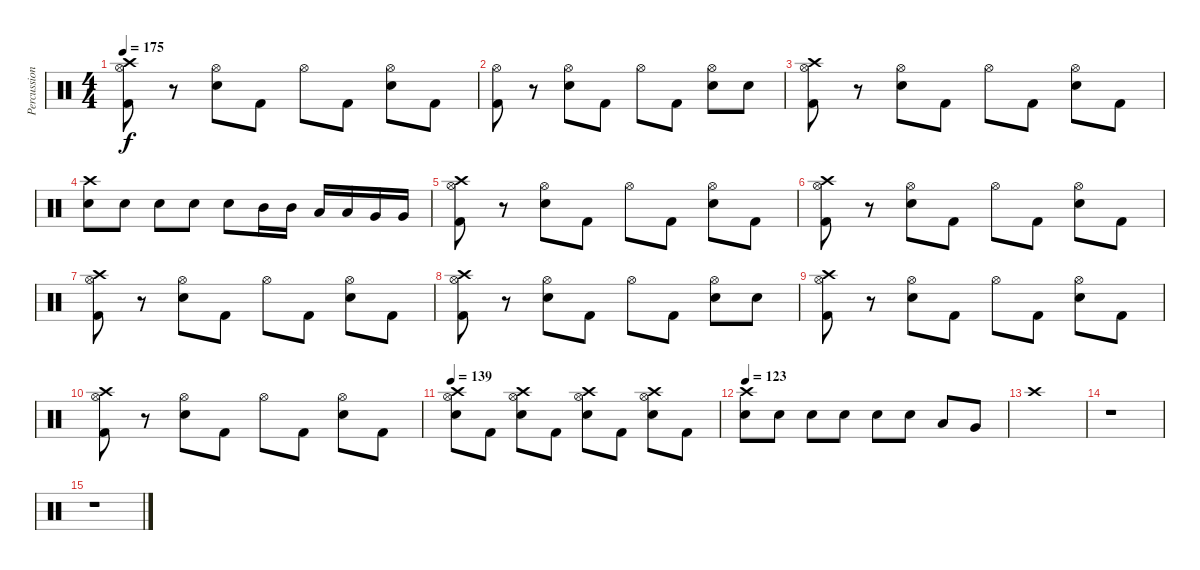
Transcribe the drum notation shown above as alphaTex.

\track ("Percussion" "Percussion") {instrument percussion}
\staff {score}
\articulation defaults
\ts (4 4)
\tempo 175
\clef neutral
\ks c
("Crash high (hit)" "Hi-Hat (open)" "Kick (hit) 2").8{dy f} r.8 ("Hi-Hat (open)" "Electric Snare (hit)").8 "Kick (hit) 2".8 "Hi-Hat (open)".8 "Kick (hit) 2".8 ("Hi-Hat (open)" "Electric Snare (hit)").8 "Kick (hit) 2".8 |
("Hi-Hat (open)" "Kick (hit) 2").8 r.8 ("Hi-Hat (open)" "Electric Snare (hit)").8 "Kick (hit) 2".8 "Hi-Hat (open)".8 "Kick (hit) 2".8 ("Hi-Hat (open)" "Electric Snare (hit)").8 "Electric Snare (hit)".8 |
("Crash high (hit)" "Hi-Hat (open)" "Kick (hit) 2").8 r.8 ("Hi-Hat (open)" "Electric Snare (hit)").8 "Kick (hit) 2".8 "Hi-Hat (open)".8 "Kick (hit) 2".8 ("Hi-Hat (open)" "Electric Snare (hit)").8 "Kick (hit) 2".8 |
("Crash high (hit)" "Electric Snare (hit)").8 "Electric Snare (hit)".8 "Electric Snare (hit)".8 "Electric Snare (hit)".8 "Electric Snare (hit)".8 "Mid Tom (hit)".16 "Mid Tom (hit)".16 "Low Tom (hit)".16 "Low Tom (hit)".16 "Very Low Tom (hit)".16 "Very Low Tom (hit)".16 |
("Crash high (hit)" "Hi-Hat (open)" "Kick (hit) 2").8 r.8 ("Hi-Hat (open)" "Electric Snare (hit)").8 "Kick (hit) 2".8 "Hi-Hat (open)".8 "Kick (hit) 2".8 ("Hi-Hat (open)" "Electric Snare (hit)").8 "Kick (hit) 2".8 |
("Crash high (hit)" "Hi-Hat (open)" "Kick (hit) 2").8 r.8 ("Hi-Hat (open)" "Electric Snare (hit)").8 "Kick (hit) 2".8 "Hi-Hat (open)".8 "Kick (hit) 2".8 ("Hi-Hat (open)" "Electric Snare (hit)").8 "Kick (hit) 2".8 |
("Crash high (hit)" "Hi-Hat (open)" "Kick (hit) 2").8 r.8 ("Hi-Hat (open)" "Electric Snare (hit)").8 "Kick (hit) 2".8 "Hi-Hat (open)".8 "Kick (hit) 2".8 ("Hi-Hat (open)" "Electric Snare (hit)").8 "Kick (hit) 2".8 |
("Crash high (hit)" "Hi-Hat (open)" "Kick (hit) 2").8 r.8 ("Hi-Hat (open)" "Electric Snare (hit)").8 "Kick (hit) 2".8 "Hi-Hat (open)".8 "Kick (hit) 2".8 ("Hi-Hat (open)" "Electric Snare (hit)").8 "Electric Snare (hit)".8 |
("Crash high (hit)" "Hi-Hat (open)" "Kick (hit) 2").8 r.8 ("Hi-Hat (open)" "Electric Snare (hit)").8 "Kick (hit) 2".8 "Hi-Hat (open)".8 "Kick (hit) 2".8 ("Hi-Hat (open)" "Electric Snare (hit)").8 "Kick (hit) 2".8 |
("Crash high (hit)" "Hi-Hat (open)" "Kick (hit) 2").8 r.8 ("Hi-Hat (open)" "Electric Snare (hit)").8 "Kick (hit) 2".8 "Hi-Hat (open)".8 "Kick (hit) 2".8 ("Hi-Hat (open)" "Electric Snare (hit)").8 "Kick (hit) 2".8 |
\tempo 139
("Crash high (hit)" "Hi-Hat (open)" "Electric Snare (hit)").8 "Kick (hit) 2".8 ("Crash high (hit)" "Hi-Hat (open)" "Electric Snare (hit)").8 "Kick (hit) 2".8 ("Crash high (hit)" "Hi-Hat (open)" "Electric Snare (hit)").8 "Kick (hit) 2".8 ("Crash high (hit)" "Hi-Hat (open)" "Electric Snare (hit)").8 "Kick (hit) 2".8 |
\tempo 123
("Crash high (hit)" "Electric Snare (hit)").8 "Electric Snare (hit)".8 "Electric Snare (hit)".8 "Electric Snare (hit)".8 "Electric Snare (hit)".8 "Electric Snare (hit)".8 "Low Tom (hit)".8 "Very Low Tom (hit)".8 |
"Crash high (hit)".1 |
r.1 |
r.1
